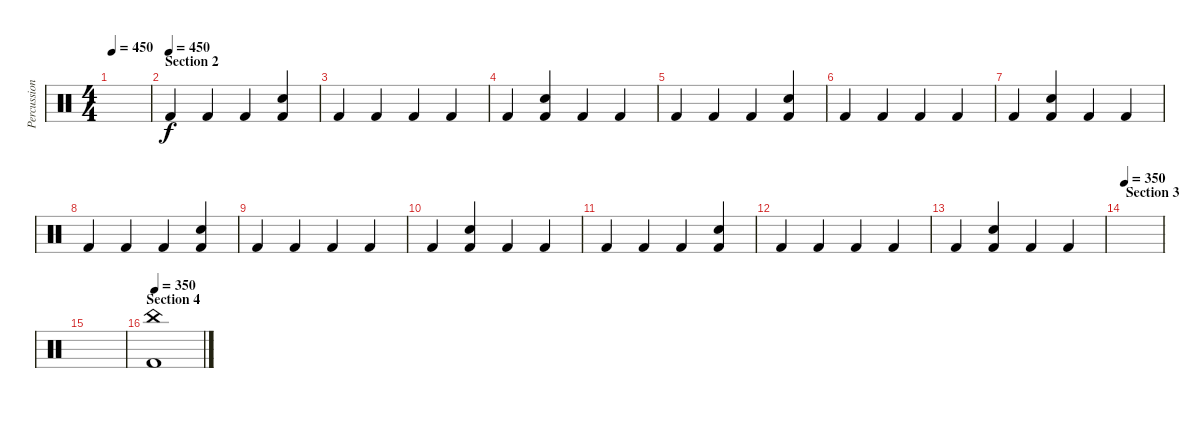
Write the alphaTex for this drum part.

\track ("Percussions2" "Percussion") {instrument percussion}
\staff {score}
\articulation defaults
\ts (4 4)
\tempo 450
\clef neutral
\ks c
|
\section ("" "Section 2")
\tempo (450)
"Kick (hit) 2".4 "Kick (hit) 2".4 "Kick (hit) 2".4 ("Kick (hit) 2" "Snare (hit) 2").4 |
"Kick (hit) 2".4 "Kick (hit) 2".4 "Kick (hit) 2".4 "Kick (hit) 2".4 |
"Kick (hit) 2".4 ("Kick (hit) 2" "Snare (hit) 2").4 "Kick (hit) 2".4 "Kick (hit) 2".4 |
"Kick (hit) 2".4 "Kick (hit) 2".4 "Kick (hit) 2".4 ("Kick (hit) 2" "Snare (hit) 2").4 |
"Kick (hit) 2".4 "Kick (hit) 2".4 "Kick (hit) 2".4 "Kick (hit) 2".4 |
"Kick (hit) 2".4 ("Kick (hit) 2" "Snare (hit) 2").4 "Kick (hit) 2".4 "Kick (hit) 2".4 |
"Kick (hit) 2".4 "Kick (hit) 2".4 "Kick (hit) 2".4 ("Kick (hit) 2" "Snare (hit) 2").4 |
"Kick (hit) 2".4 "Kick (hit) 2".4 "Kick (hit) 2".4 "Kick (hit) 2".4 |
"Kick (hit) 2".4 ("Kick (hit) 2" "Snare (hit) 2").4 "Kick (hit) 2".4 "Kick (hit) 2".4 |
"Kick (hit) 2".4 "Kick (hit) 2".4 "Kick (hit) 2".4 ("Kick (hit) 2" "Snare (hit) 2").4 |
"Kick (hit) 2".4 "Kick (hit) 2".4 "Kick (hit) 2".4 "Kick (hit) 2".4 |
"Kick (hit) 2".4 ("Kick (hit) 2" "Snare (hit) 2").4 "Kick (hit) 2".4 "Kick (hit) 2".4 |
\section ("" "Section 3")
\tempo 350
|
|
\section ("" "Section 4")
\tempo 350
("China (hit)" "Kick (hit) 2").1
